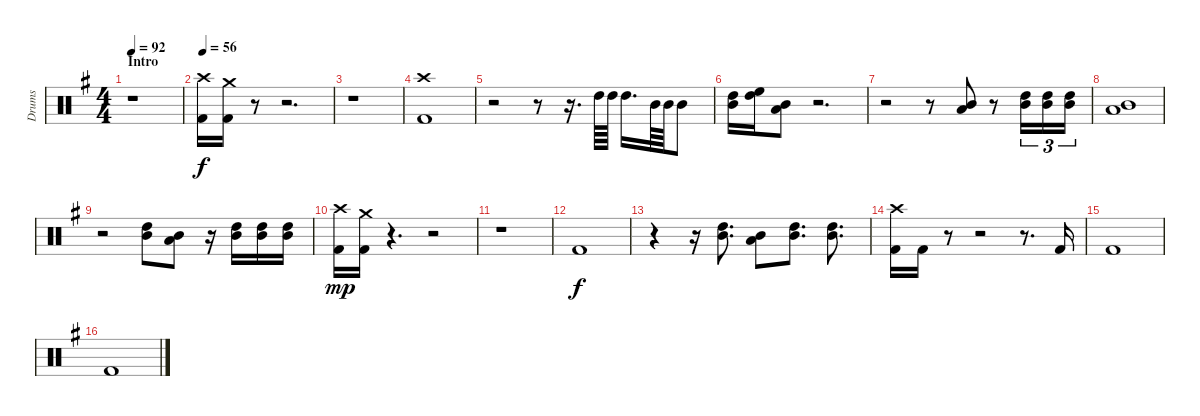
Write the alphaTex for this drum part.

\track ("Drums" "Drums") {instrument percussion}
\staff {score}
\articulation defaults
\ts (4 4)
\section ("" "Intro")
\tempo 92
\clef neutral
\ks eminor
r.1{dy f} |
\tempo 56
("Crash high (hit)" "Kick (hit) 2").16 ("Crash medium (hit)" "Kick (hit) 2").16 r.8 r.2{d} |
r.1 |
("Crash high (hit)" "Kick (hit) 2").1 |
r.2 r.8 r.16{d} "High Tom (hit)".64 "High Tom (hit)".64 "High Tom (hit)".16{d} "Mid Tom (hit)".64 "Mid Tom (hit)".64 "Mid Tom (hit)".8 |
("High Tom (hit)" "Mid Tom (hit)").16 ("High Floor Tom (hit)" "High Tom (hit)").16 ("Mid Tom (hit)" "Low Tom (hit)").8 r.2{d} |
r.2 r.8 ("Mid Tom (hit)" "Low Tom (hit)").8 r.8 ("High Tom (hit)" "Mid Tom (hit)").16{tu (3 2)} ("High Tom (hit)" "Mid Tom (hit)").16{tu (3 2)} ("High Tom (hit)" "Mid Tom (hit)").16{tu (3 2)} |
("Mid Tom (hit)" "Low Tom (hit)").1 |
r.2 ("High Tom (hit)" "Mid Tom (hit)").8 ("Mid Tom (hit)" "Low Tom (hit)").8 r.16 ("High Tom (hit)" "Mid Tom (hit)").16 ("High Tom (hit)" "Mid Tom (hit)").16 ("High Tom (hit)" "Mid Tom (hit)").16 |
("Crash high (hit)" "Kick (hit) 2").16{dy mp} ("Crash medium (hit)" "Kick (hit) 2").16 r.4{d} r.2 |
r.1 |
"Kick (hit) 2".1{dy f} |
r.4 r.16 ("High Tom (hit)" "Mid Tom (hit)").8{d} ("Mid Tom (hit)" "Low Tom (hit)").8 ("High Tom (hit)" "Mid Tom (hit)").8{d} ("High Tom (hit)" "Mid Tom (hit)").8{d} |
("Crash high (hit)" "Kick (hit) 2").16 "Kick (hit) 2".16 r.8 r.2 r.8{d} "Kick (hit) 2".16 |
"Kick (hit) 2".1 |
"Kick (hit) 2".1
